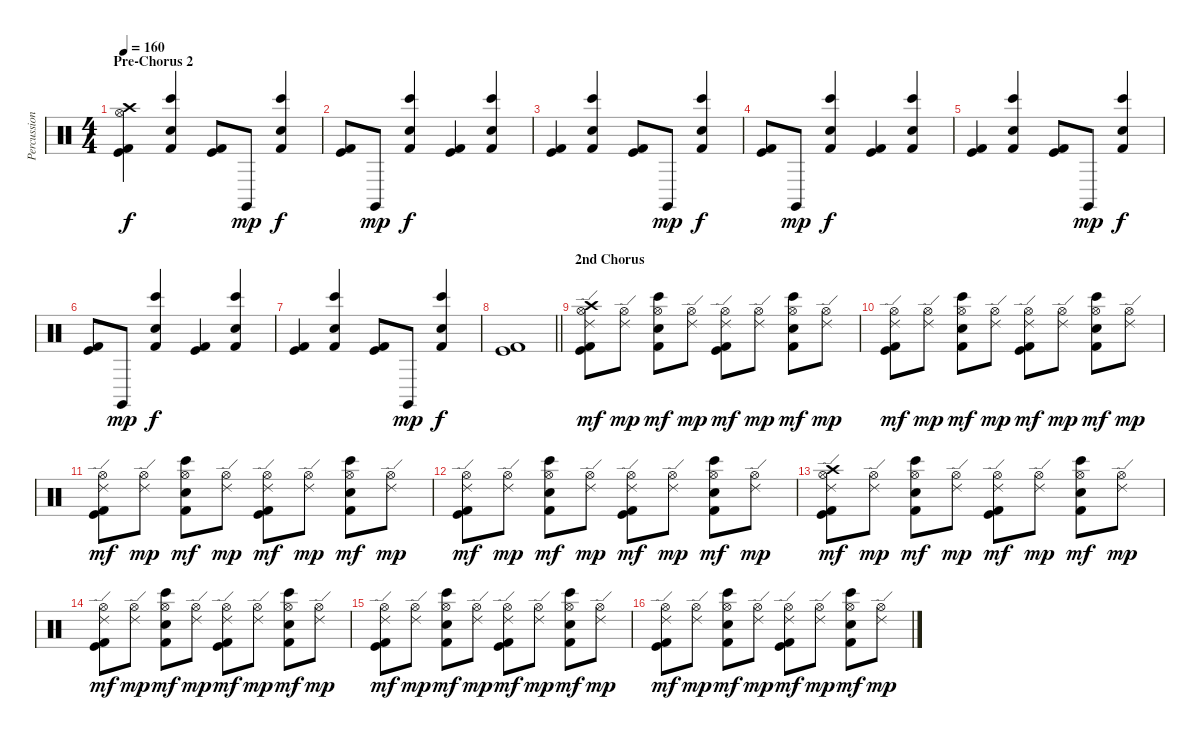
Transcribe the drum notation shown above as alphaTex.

\track ("Percussion" "Percussion") {instrument percussion}
\staff {score}
\articulation defaults
\ts (4 4)
\section ("" "Pre-Chorus 2")
\tempo 160
\clef neutral
\ks c
("Crash high (hit)" "Hi-Hat (open)" "Kick (hit)" "Kick (hit) 2").4{dy f} ("Bongo High (hit)" "Hand Clap (hit)" "Kick (hit) 2").4 ("Kick (hit)" "Kick (hit) 2").8 "Claves (hit)".8{dy mp} ("Bongo High (hit)" "Hand Clap (hit)" "Kick (hit) 2").4{dy f} |
("Kick (hit)" "Kick (hit) 2").8 "Claves (hit)".8{dy mp} ("Bongo High (hit)" "Hand Clap (hit)" "Kick (hit) 2").4{dy f} ("Kick (hit)" "Kick (hit) 2").4 ("Bongo High (hit)" "Hand Clap (hit)" "Kick (hit) 2").4 |
("Kick (hit)" "Kick (hit) 2").4 ("Bongo High (hit)" "Hand Clap (hit)" "Kick (hit) 2").4 ("Kick (hit)" "Kick (hit) 2").8 "Claves (hit)".8{dy mp} ("Bongo High (hit)" "Hand Clap (hit)" "Kick (hit) 2").4{dy f} |
("Kick (hit)" "Kick (hit) 2").8 "Claves (hit)".8{dy mp} ("Bongo High (hit)" "Hand Clap (hit)" "Kick (hit) 2").4{dy f} ("Kick (hit)" "Kick (hit) 2").4 ("Bongo High (hit)" "Hand Clap (hit)" "Kick (hit) 2").4 |
("Kick (hit)" "Kick (hit) 2").4 ("Bongo High (hit)" "Hand Clap (hit)" "Kick (hit) 2").4 ("Kick (hit)" "Kick (hit) 2").8 "Claves (hit)".8{dy mp} ("Bongo High (hit)" "Hand Clap (hit)" "Kick (hit) 2").4{dy f} |
("Kick (hit)" "Kick (hit) 2").8 "Claves (hit)".8{dy mp} ("Bongo High (hit)" "Hand Clap (hit)" "Kick (hit) 2").4{dy f} ("Kick (hit)" "Kick (hit) 2").4 ("Bongo High (hit)" "Hand Clap (hit)" "Kick (hit) 2").4 |
("Kick (hit)" "Kick (hit) 2").4 ("Bongo High (hit)" "Hand Clap (hit)" "Kick (hit) 2").4 ("Kick (hit)" "Kick (hit) 2").8 "Claves (hit)".8{dy mp} ("Bongo High (hit)" "Hand Clap (hit)" "Kick (hit) 2").4{dy f} |
\barLineRight lightlight
("Kick (hit)" "Kick (hit) 2").1 |
\section ("" "2nd Chorus")
("Crash high (hit)" "Ride (edge) 2" "Hi-Hat (open)" "Kick (hit)" "Kick (hit) 2").8{dy mf} ("Ride (edge) 2" "Hi-Hat (open)").8{dy mp} ("Bongo High (hit)" "Hi-Hat (open)" "Hand Clap (hit)" "Kick (hit) 2").8{dy mf} ("Ride (edge) 2" "Hi-Hat (open)").8{dy mp} ("Ride (edge) 2" "Hi-Hat (open)" "Kick (hit)" "Kick (hit) 2").8{dy mf} ("Ride (edge) 2" "Hi-Hat (open)").8{dy mp} ("Bongo High (hit)" "Hi-Hat (open)" "Hand Clap (hit)" "Kick (hit) 2").8{dy mf} ("Ride (edge) 2" "Hi-Hat (open)").8{dy mp} |
("Ride (edge) 2" "Hi-Hat (open)" "Kick (hit)" "Kick (hit) 2").8{dy mf} ("Ride (edge) 2" "Hi-Hat (open)").8{dy mp} ("Bongo High (hit)" "Hi-Hat (open)" "Hand Clap (hit)" "Kick (hit) 2").8{dy mf} ("Ride (edge) 2" "Hi-Hat (open)").8{dy mp} ("Ride (edge) 2" "Hi-Hat (open)" "Kick (hit)" "Kick (hit) 2").8{dy mf} ("Ride (edge) 2" "Hi-Hat (open)").8{dy mp} ("Bongo High (hit)" "Hi-Hat (open)" "Hand Clap (hit)" "Kick (hit) 2").8{dy mf} ("Ride (edge) 2" "Hi-Hat (open)").8{dy mp} |
("Ride (edge) 2" "Hi-Hat (open)" "Kick (hit)" "Kick (hit) 2").8{dy mf} ("Ride (edge) 2" "Hi-Hat (open)").8{dy mp} ("Bongo High (hit)" "Hi-Hat (open)" "Hand Clap (hit)" "Kick (hit) 2").8{dy mf} ("Ride (edge) 2" "Hi-Hat (open)").8{dy mp} ("Ride (edge) 2" "Hi-Hat (open)" "Kick (hit)" "Kick (hit) 2").8{dy mf} ("Ride (edge) 2" "Hi-Hat (open)").8{dy mp} ("Bongo High (hit)" "Hi-Hat (open)" "Hand Clap (hit)" "Kick (hit) 2").8{dy mf} ("Ride (edge) 2" "Hi-Hat (open)").8{dy mp} |
("Ride (edge) 2" "Hi-Hat (open)" "Kick (hit)" "Kick (hit) 2").8{dy mf} ("Ride (edge) 2" "Hi-Hat (open)").8{dy mp} ("Bongo High (hit)" "Hi-Hat (open)" "Hand Clap (hit)" "Kick (hit) 2").8{dy mf} ("Ride (edge) 2" "Hi-Hat (open)").8{dy mp} ("Ride (edge) 2" "Hi-Hat (open)" "Kick (hit)" "Kick (hit) 2").8{dy mf} ("Ride (edge) 2" "Hi-Hat (open)").8{dy mp} ("Bongo High (hit)" "Hi-Hat (open)" "Hand Clap (hit)" "Kick (hit) 2").8{dy mf} ("Ride (edge) 2" "Hi-Hat (open)").8{dy mp} |
("Crash high (hit)" "Ride (edge) 2" "Hi-Hat (open)" "Kick (hit)" "Kick (hit) 2").8{dy mf} ("Ride (edge) 2" "Hi-Hat (open)").8{dy mp} ("Bongo High (hit)" "Hi-Hat (open)" "Hand Clap (hit)" "Kick (hit) 2").8{dy mf} ("Ride (edge) 2" "Hi-Hat (open)").8{dy mp} ("Ride (edge) 2" "Hi-Hat (open)" "Kick (hit)" "Kick (hit) 2").8{dy mf} ("Ride (edge) 2" "Hi-Hat (open)").8{dy mp} ("Bongo High (hit)" "Hi-Hat (open)" "Hand Clap (hit)" "Kick (hit) 2").8{dy mf} ("Ride (edge) 2" "Hi-Hat (open)").8{dy mp} |
("Ride (edge) 2" "Hi-Hat (open)" "Kick (hit)" "Kick (hit) 2").8{dy mf} ("Ride (edge) 2" "Hi-Hat (open)").8{dy mp} ("Bongo High (hit)" "Hi-Hat (open)" "Hand Clap (hit)" "Kick (hit) 2").8{dy mf} ("Ride (edge) 2" "Hi-Hat (open)").8{dy mp} ("Ride (edge) 2" "Hi-Hat (open)" "Kick (hit)" "Kick (hit) 2").8{dy mf} ("Ride (edge) 2" "Hi-Hat (open)").8{dy mp} ("Bongo High (hit)" "Hi-Hat (open)" "Hand Clap (hit)" "Kick (hit) 2").8{dy mf} ("Ride (edge) 2" "Hi-Hat (open)").8{dy mp} |
("Ride (edge) 2" "Hi-Hat (open)" "Kick (hit)" "Kick (hit) 2").8{dy mf} ("Ride (edge) 2" "Hi-Hat (open)").8{dy mp} ("Bongo High (hit)" "Hi-Hat (open)" "Hand Clap (hit)" "Kick (hit) 2").8{dy mf} ("Ride (edge) 2" "Hi-Hat (open)").8{dy mp} ("Ride (edge) 2" "Hi-Hat (open)" "Kick (hit)" "Kick (hit) 2").8{dy mf} ("Ride (edge) 2" "Hi-Hat (open)").8{dy mp} ("Bongo High (hit)" "Hi-Hat (open)" "Hand Clap (hit)" "Kick (hit) 2").8{dy mf} ("Ride (edge) 2" "Hi-Hat (open)").8{dy mp} |
("Ride (edge) 2" "Hi-Hat (open)" "Kick (hit)" "Kick (hit) 2").8{dy mf} ("Ride (edge) 2" "Hi-Hat (open)").8{dy mp} ("Bongo High (hit)" "Hi-Hat (open)" "Hand Clap (hit)" "Kick (hit) 2").8{dy mf} ("Ride (edge) 2" "Hi-Hat (open)").8{dy mp} ("Ride (edge) 2" "Hi-Hat (open)" "Kick (hit)" "Kick (hit) 2").8{dy mf} ("Ride (edge) 2" "Hi-Hat (open)").8{dy mp} ("Bongo High (hit)" "Hi-Hat (open)" "Hand Clap (hit)" "Kick (hit) 2").8{dy mf} ("Ride (edge) 2" "Hi-Hat (open)").8{dy mp}
